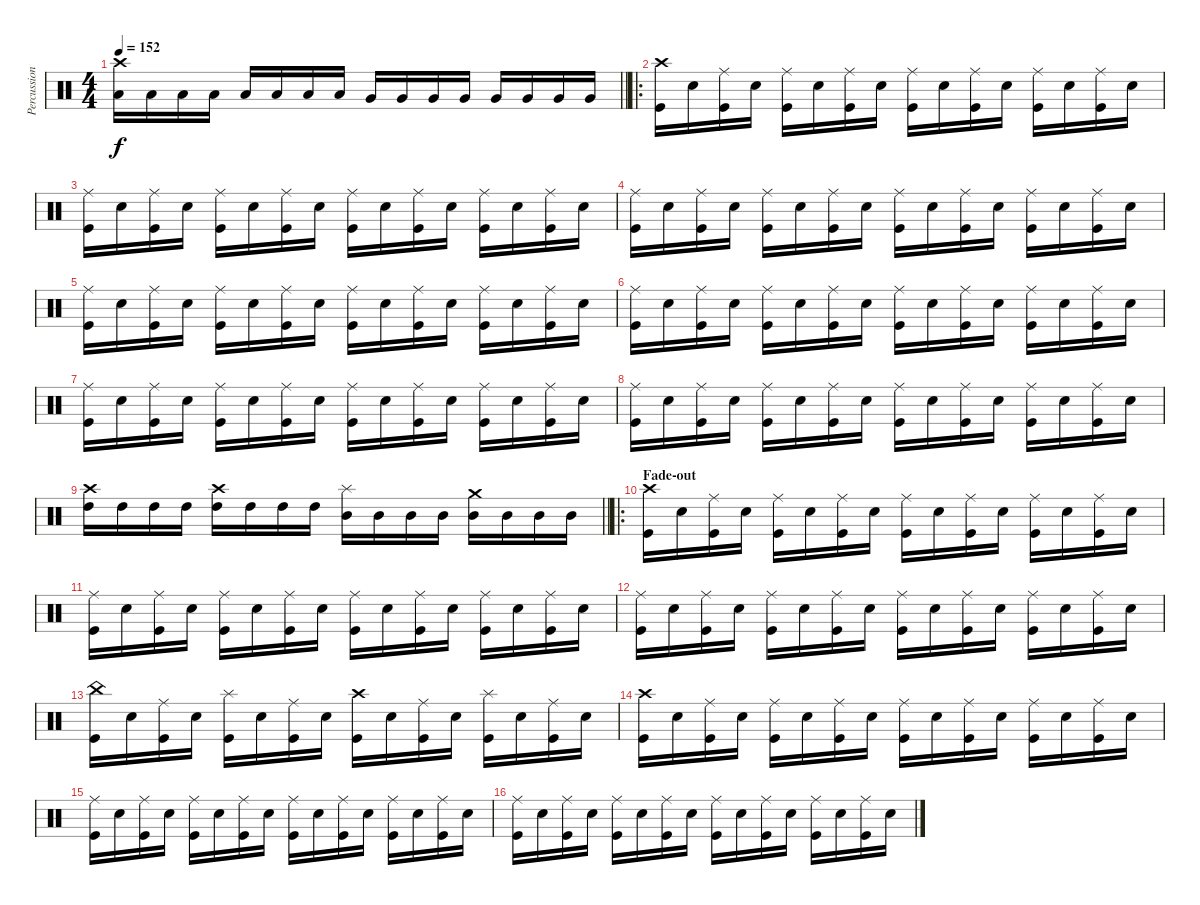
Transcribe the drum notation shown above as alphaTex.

\track ("Percussion" "Percussion") {instrument percussion}
\staff {score}
\articulation defaults
\ts (4 4)
\tempo 152
\clef neutral
\barLineRight lightlight
\ks c
("Crash high (hit)" "Low Tom (hit)").16{dy f} "Low Tom (hit)".16 "Low Tom (hit)".16 "Low Tom (hit)".16 "Low Tom (hit)".16 "Low Tom (hit)".16 "Low Tom (hit)".16 "Low Tom (hit)".16 "Very Low Tom (hit)".16 "Very Low Tom (hit)".16 "Very Low Tom (hit)".16 "Very Low Tom (hit)".16 "Very Low Tom (hit)".16 "Very Low Tom (hit)".16 "Very Low Tom (hit)".16 "Very Low Tom (hit)".16 |
\ro
("Crash high (hit)" "Kick (hit)").16 "Snare (hit) 2".16 ("Ride (middle)" "Kick (hit)").16 "Snare (hit) 2".16 ("Ride (middle)" "Kick (hit)").16 "Snare (hit) 2".16 ("Ride (middle)" "Kick (hit)").16 "Snare (hit) 2".16 ("Ride (middle)" "Kick (hit)").16 "Snare (hit) 2".16 ("Ride (middle)" "Kick (hit)").16 "Snare (hit) 2".16 ("Ride (middle)" "Kick (hit)").16 "Snare (hit) 2".16 ("Ride (middle)" "Kick (hit)").16 "Snare (hit) 2".16 |
("Ride (middle)" "Kick (hit)").16 "Snare (hit) 2".16 ("Ride (middle)" "Kick (hit)").16 "Snare (hit) 2".16 ("Ride (middle)" "Kick (hit)").16 "Snare (hit) 2".16 ("Ride (middle)" "Kick (hit)").16 "Snare (hit) 2".16 ("Ride (middle)" "Kick (hit)").16 "Snare (hit) 2".16 ("Ride (middle)" "Kick (hit)").16 "Snare (hit) 2".16 ("Ride (middle)" "Kick (hit)").16 "Snare (hit) 2".16 ("Ride (middle)" "Kick (hit)").16 "Snare (hit) 2".16 |
("Ride (middle)" "Kick (hit)").16 "Snare (hit) 2".16 ("Ride (middle)" "Kick (hit)").16 "Snare (hit) 2".16 ("Ride (middle)" "Kick (hit)").16 "Snare (hit) 2".16 ("Ride (middle)" "Kick (hit)").16 "Snare (hit) 2".16 ("Ride (middle)" "Kick (hit)").16 "Snare (hit) 2".16 ("Ride (middle)" "Kick (hit)").16 "Snare (hit) 2".16 ("Ride (middle)" "Kick (hit)").16 "Snare (hit) 2".16 ("Ride (middle)" "Kick (hit)").16 "Snare (hit) 2".16 |
("Ride (middle)" "Kick (hit)").16 "Snare (hit) 2".16 ("Ride (middle)" "Kick (hit)").16 "Snare (hit) 2".16 ("Ride (middle)" "Kick (hit)").16 "Snare (hit) 2".16 ("Ride (middle)" "Kick (hit)").16 "Snare (hit) 2".16 ("Ride (middle)" "Kick (hit)").16 "Snare (hit) 2".16 ("Ride (middle)" "Kick (hit)").16 "Snare (hit) 2".16 ("Ride (middle)" "Kick (hit)").16 "Snare (hit) 2".16 ("Ride (middle)" "Kick (hit)").16 "Snare (hit) 2".16 |
("Ride (middle)" "Kick (hit)").16 "Snare (hit) 2".16 ("Ride (middle)" "Kick (hit)").16 "Snare (hit) 2".16 ("Ride (middle)" "Kick (hit)").16 "Snare (hit) 2".16 ("Ride (middle)" "Kick (hit)").16 "Snare (hit) 2".16 ("Ride (middle)" "Kick (hit)").16 "Snare (hit) 2".16 ("Ride (middle)" "Kick (hit)").16 "Snare (hit) 2".16 ("Ride (middle)" "Kick (hit)").16 "Snare (hit) 2".16 ("Ride (middle)" "Kick (hit)").16 "Snare (hit) 2".16 |
("Ride (middle)" "Kick (hit)").16 "Snare (hit) 2".16 ("Ride (middle)" "Kick (hit)").16 "Snare (hit) 2".16 ("Ride (middle)" "Kick (hit)").16 "Snare (hit) 2".16 ("Ride (middle)" "Kick (hit)").16 "Snare (hit) 2".16 ("Ride (middle)" "Kick (hit)").16 "Snare (hit) 2".16 ("Ride (middle)" "Kick (hit)").16 "Snare (hit) 2".16 ("Ride (middle)" "Kick (hit)").16 "Snare (hit) 2".16 ("Ride (middle)" "Kick (hit)").16 "Snare (hit) 2".16 |
("Ride (middle)" "Kick (hit)").16 "Snare (hit) 2".16 ("Ride (middle)" "Kick (hit)").16 "Snare (hit) 2".16 ("Ride (middle)" "Kick (hit)").16 "Snare (hit) 2".16 ("Ride (middle)" "Kick (hit)").16 "Snare (hit) 2".16 ("Ride (middle)" "Kick (hit)").16 "Snare (hit) 2".16 ("Ride (middle)" "Kick (hit)").16 "Snare (hit) 2".16 ("Ride (middle)" "Kick (hit)").16 "Snare (hit) 2".16 ("Ride (middle)" "Kick (hit)").16 "Snare (hit) 2".16 |
\barLineRight lightlight
("Crash high (hit)" "High Tom (hit)").16 "High Tom (hit)".16 "High Tom (hit)".16 "High Tom (hit)".16 ("Crash high (hit)" "High Tom (hit)").16 "High Tom (hit)".16 "High Tom (hit)".16 "High Tom (hit)".16 ("Splash (hit)" "Mid Tom (hit)").16 "Mid Tom (hit)".16 "Mid Tom (hit)".16 "Mid Tom (hit)".16 ("Crash medium (hit)" "Mid Tom (hit)").16 "Mid Tom (hit)".16 "Mid Tom (hit)".16 "Mid Tom (hit)".16 |
\ro
\section ("" "Fade-out")
("Crash high (hit)" "Kick (hit)").16{volume 10} "Snare (hit) 2".16 ("Ride (middle)" "Kick (hit)").16 "Snare (hit) 2".16 ("Ride (middle)" "Kick (hit)").16 "Snare (hit) 2".16 ("Ride (middle)" "Kick (hit)").16 "Snare (hit) 2".16 ("Ride (middle)" "Kick (hit)").16 "Snare (hit) 2".16 ("Ride (middle)" "Kick (hit)").16 "Snare (hit) 2".16 ("Ride (middle)" "Kick (hit)").16 "Snare (hit) 2".16 ("Ride (middle)" "Kick (hit)").16 "Snare (hit) 2".16 |
("Ride (middle)" "Kick (hit)").16 "Snare (hit) 2".16 ("Ride (middle)" "Kick (hit)").16 "Snare (hit) 2".16 ("Ride (middle)" "Kick (hit)").16 "Snare (hit) 2".16 ("Ride (middle)" "Kick (hit)").16 "Snare (hit) 2".16 ("Ride (middle)" "Kick (hit)").16 "Snare (hit) 2".16 ("Ride (middle)" "Kick (hit)").16 "Snare (hit) 2".16 ("Ride (middle)" "Kick (hit)").16 "Snare (hit) 2".16 ("Ride (middle)" "Kick (hit)").16 "Snare (hit) 2".16 |
("Ride (middle)" "Kick (hit)").16 "Snare (hit) 2".16 ("Ride (middle)" "Kick (hit)").16 "Snare (hit) 2".16 ("Ride (middle)" "Kick (hit)").16 "Snare (hit) 2".16 ("Ride (middle)" "Kick (hit)").16 "Snare (hit) 2".16 ("Ride (middle)" "Kick (hit)").16 "Snare (hit) 2".16 ("Ride (middle)" "Kick (hit)").16 "Snare (hit) 2".16 ("Ride (middle)" "Kick (hit)").16 "Snare (hit) 2".16 ("Ride (middle)" "Kick (hit)").16 "Snare (hit) 2".16 |
("China (hit)" "Kick (hit)").16 "Snare (hit) 2".16 ("Ride (middle)" "Kick (hit)").16 "Snare (hit) 2".16 ("Splash (hit)" "Kick (hit)").16 "Snare (hit) 2".16 ("Ride (middle)" "Kick (hit)").16 "Snare (hit) 2".16 ("Crash high (hit)" "Kick (hit)").16 "Snare (hit) 2".16 ("Ride (middle)" "Kick (hit)").16 "Snare (hit) 2".16 ("Splash (hit)" "Kick (hit)").16 "Snare (hit) 2".16 ("Ride (middle)" "Kick (hit)").16 "Snare (hit) 2".16 |
("Crash high (hit)" "Kick (hit)").16 "Snare (hit) 2".16{volume 9} ("Ride (middle)" "Kick (hit)").16 "Snare (hit) 2".16 ("Ride (middle)" "Kick (hit)").16 "Snare (hit) 2".16 ("Ride (middle)" "Kick (hit)").16 "Snare (hit) 2".16 ("Ride (middle)" "Kick (hit)").16 "Snare (hit) 2".16 ("Ride (middle)" "Kick (hit)").16 "Snare (hit) 2".16 ("Ride (middle)" "Kick (hit)").16 "Snare (hit) 2".16 ("Ride (middle)" "Kick (hit)").16 "Snare (hit) 2".16 |
("Ride (middle)" "Kick (hit)").16 "Snare (hit) 2".16 ("Ride (middle)" "Kick (hit)").16 "Snare (hit) 2".16 ("Ride (middle)" "Kick (hit)").16 "Snare (hit) 2".16 ("Ride (middle)" "Kick (hit)").16 "Snare (hit) 2".16 ("Ride (middle)" "Kick (hit)").16 "Snare (hit) 2".16 ("Ride (middle)" "Kick (hit)").16 "Snare (hit) 2".16 ("Ride (middle)" "Kick (hit)").16 "Snare (hit) 2".16 ("Ride (middle)" "Kick (hit)").16 "Snare (hit) 2".16 |
("Ride (middle)" "Kick (hit)").16 "Snare (hit) 2".16 ("Ride (middle)" "Kick (hit)").16 "Snare (hit) 2".16 ("Ride (middle)" "Kick (hit)").16 "Snare (hit) 2".16 ("Ride (middle)" "Kick (hit)").16 "Snare (hit) 2".16 ("Ride (middle)" "Kick (hit)").16 "Snare (hit) 2".16 ("Ride (middle)" "Kick (hit)").16 "Snare (hit) 2".16 ("Ride (middle)" "Kick (hit)").16 "Snare (hit) 2".16 ("Ride (middle)" "Kick (hit)").16 "Snare (hit) 2".16
